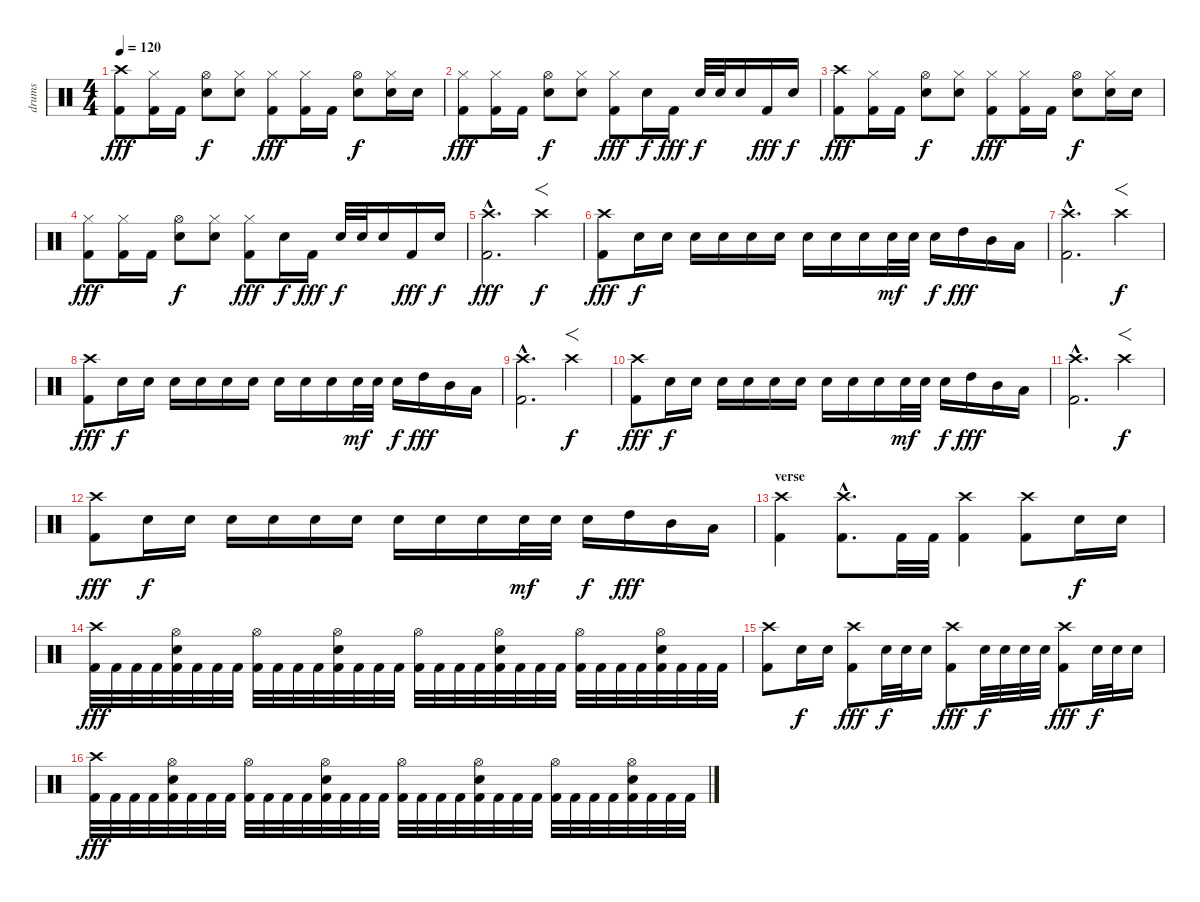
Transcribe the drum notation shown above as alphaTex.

\track ("drums" "drums") {instrument percussion}
\staff {score}
\articulation defaults
\ts (4 4)
\tempo 120
\clef neutral
\ks c
("Crash high (hit)" "Kick (hit) 2").8{dy fff} ("Hi-Hat (closed)" "Kick (hit) 2").16 "Kick (hit) 2".16 ("Hi-Hat (open)" "Snare (hit) 2").8{dy f} ("Hi-Hat (closed)" "Snare (hit) 2").8 ("Hi-Hat (closed)" "Kick (hit) 2").8{dy fff} ("Hi-Hat (closed)" "Kick (hit) 2").16 "Kick (hit) 2".16 ("Hi-Hat (open)" "Snare (hit) 2").8{dy f} ("Hi-Hat (closed)" "Snare (hit) 2").16 "Snare (hit) 2".16 |
("Hi-Hat (closed)" "Kick (hit) 2").8{dy fff} ("Hi-Hat (closed)" "Kick (hit) 2").16 "Kick (hit) 2".16 ("Hi-Hat (open)" "Snare (hit) 2").8{dy f} ("Hi-Hat (closed)" "Snare (hit) 2").8 ("Hi-Hat (closed)" "Kick (hit) 2").8{dy fff} "Snare (hit) 2".16{dy f} "Kick (hit) 2".16{dy fff} "Snare (hit) 2".32{dy f} "Snare (hit) 2".32 "Snare (hit) 2".16 "Kick (hit) 2".16{dy fff} "Snare (hit) 2".16{dy f} |
("Crash high (hit)" "Kick (hit) 2").8{dy fff} ("Hi-Hat (closed)" "Kick (hit) 2").16 "Kick (hit) 2".16 ("Hi-Hat (open)" "Snare (hit) 2").8{dy f} ("Hi-Hat (closed)" "Snare (hit) 2").8 ("Hi-Hat (closed)" "Kick (hit) 2").8{dy fff} ("Hi-Hat (closed)" "Kick (hit) 2").16 "Kick (hit) 2".16 ("Hi-Hat (open)" "Snare (hit) 2").8{dy f} ("Hi-Hat (closed)" "Snare (hit) 2").16 "Snare (hit) 2".16 |
("Hi-Hat (closed)" "Kick (hit) 2").8{dy fff} ("Hi-Hat (closed)" "Kick (hit) 2").16 "Kick (hit) 2".16 ("Hi-Hat (open)" "Snare (hit) 2").8{dy f} ("Hi-Hat (closed)" "Snare (hit) 2").8 ("Hi-Hat (closed)" "Kick (hit) 2").8{dy fff} "Snare (hit) 2".16{dy f} "Kick (hit) 2".16{dy fff} "Snare (hit) 2".32{dy f} "Snare (hit) 2".32 "Snare (hit) 2".16 "Kick (hit) 2".16{dy fff} "Snare (hit) 2".16{dy f} |
("Crash high (hit)"{hac} "Kick (hit) 2"{hac}).2{d dy fff} "Crash high (hit)".4{f dy f} |
("Crash high (hit)" "Kick (hit) 2").8{dy fff} "Snare (hit) 2".16{dy f} "Snare (hit) 2".16 "Snare (hit) 2".16 "Snare (hit) 2".16 "Snare (hit) 2".16 "Snare (hit) 2".16 "Snare (hit) 2".16 "Snare (hit) 2".16 "Snare (hit) 2".16 "Snare (hit) 2".32{dy mf} "Snare (hit) 2".32 "Snare (hit) 2".16{dy f} "High Tom (hit)".16{dy fff} "Mid Tom (hit)".16 "Low Tom (hit)".16 |
("Crash high (hit)"{hac} "Kick (hit) 2"{hac}).2{d} "Crash high (hit)".4{f dy f} |
("Crash high (hit)" "Kick (hit) 2").8{dy fff} "Snare (hit) 2".16{dy f} "Snare (hit) 2".16 "Snare (hit) 2".16 "Snare (hit) 2".16 "Snare (hit) 2".16 "Snare (hit) 2".16 "Snare (hit) 2".16 "Snare (hit) 2".16 "Snare (hit) 2".16 "Snare (hit) 2".32{dy mf} "Snare (hit) 2".32 "Snare (hit) 2".16{dy f} "High Tom (hit)".16{dy fff} "Mid Tom (hit)".16 "Low Tom (hit)".16 |
("Crash high (hit)"{hac} "Kick (hit) 2"{hac}).2{d} "Crash high (hit)".4{f dy f} |
("Crash high (hit)" "Kick (hit) 2").8{dy fff} "Snare (hit) 2".16{dy f} "Snare (hit) 2".16 "Snare (hit) 2".16 "Snare (hit) 2".16 "Snare (hit) 2".16 "Snare (hit) 2".16 "Snare (hit) 2".16 "Snare (hit) 2".16 "Snare (hit) 2".16 "Snare (hit) 2".32{dy mf} "Snare (hit) 2".32 "Snare (hit) 2".16{dy f} "High Tom (hit)".16{dy fff} "Mid Tom (hit)".16 "Low Tom (hit)".16 |
("Crash high (hit)"{hac} "Kick (hit) 2"{hac}).2{d} "Crash high (hit)".4{f dy f} |
("Crash high (hit)" "Kick (hit) 2").8{dy fff} "Snare (hit) 2".16{dy f} "Snare (hit) 2".16 "Snare (hit) 2".16 "Snare (hit) 2".16 "Snare (hit) 2".16 "Snare (hit) 2".16 "Snare (hit) 2".16 "Snare (hit) 2".16 "Snare (hit) 2".16 "Snare (hit) 2".32{dy mf} "Snare (hit) 2".32 "Snare (hit) 2".16{dy f} "High Tom (hit)".16{dy fff} "Mid Tom (hit)".16 "Low Tom (hit)".16 |
\section ("" "verse")
("Crash high (hit)" "Kick (hit) 2").4 ("Crash high (hit)"{hac} "Kick (hit) 2"{hac}).8{d} "Kick (hit) 2".32 "Kick (hit) 2".32 ("Crash high (hit)" "Kick (hit) 2").4 ("Crash high (hit)" "Kick (hit) 2").8 "Snare (hit) 2".16{dy f} "Snare (hit) 2".16 |
("Crash high (hit)" "Kick (hit) 2").32{dy fff} "Kick (hit) 2".32 "Kick (hit) 2".32 "Kick (hit) 2".32 ("Hi-Hat (open)" "Snare (hit) 2" "Kick (hit) 2").32 "Kick (hit) 2".32 "Kick (hit) 2".32 "Kick (hit) 2".32 ("Hi-Hat (open)" "Kick (hit) 2").32 "Kick (hit) 2".32 "Kick (hit) 2".32 "Kick (hit) 2".32 ("Hi-Hat (open)" "Snare (hit) 2" "Kick (hit) 2").32 "Kick (hit) 2".32 "Kick (hit) 2".32 "Kick (hit) 2".32 ("Hi-Hat (open)" "Kick (hit) 2").32 "Kick (hit) 2".32 "Kick (hit) 2".32 "Kick (hit) 2".32 ("Hi-Hat (open)" "Snare (hit) 2" "Kick (hit) 2").32 "Kick (hit) 2".32 "Kick (hit) 2".32 "Kick (hit) 2".32 ("Hi-Hat (open)" "Kick (hit) 2").32 "Kick (hit) 2".32 "Kick (hit) 2".32 "Kick (hit) 2".32 ("Hi-Hat (open)" "Snare (hit) 2" "Kick (hit) 2").32 "Kick (hit) 2".32 "Kick (hit) 2".32 "Kick (hit) 2".32 |
("Crash high (hit)" "Kick (hit) 2").8 "Snare (hit) 2".16{dy f} "Snare (hit) 2".16 ("Crash high (hit)" "Kick (hit) 2").8{dy fff} "Snare (hit) 2".32{dy f} "Snare (hit) 2".32 "Snare (hit) 2".16 ("Crash high (hit)" "Kick (hit) 2").8{dy fff} "Snare (hit) 2".32{dy f} "Snare (hit) 2".32 "Snare (hit) 2".32 "Snare (hit) 2".32 ("Crash high (hit)" "Kick (hit) 2").8{dy fff} "Snare (hit) 2".32{dy f} "Snare (hit) 2".32 "Snare (hit) 2".16 |
("Crash high (hit)" "Kick (hit) 2").32{dy fff} "Kick (hit) 2".32 "Kick (hit) 2".32 "Kick (hit) 2".32 ("Hi-Hat (open)" "Snare (hit) 2" "Kick (hit) 2").32 "Kick (hit) 2".32 "Kick (hit) 2".32 "Kick (hit) 2".32 ("Hi-Hat (open)" "Kick (hit) 2").32 "Kick (hit) 2".32 "Kick (hit) 2".32 "Kick (hit) 2".32 ("Hi-Hat (open)" "Snare (hit) 2" "Kick (hit) 2").32 "Kick (hit) 2".32 "Kick (hit) 2".32 "Kick (hit) 2".32 ("Hi-Hat (open)" "Kick (hit) 2").32 "Kick (hit) 2".32 "Kick (hit) 2".32 "Kick (hit) 2".32 ("Hi-Hat (open)" "Snare (hit) 2" "Kick (hit) 2").32 "Kick (hit) 2".32 "Kick (hit) 2".32 "Kick (hit) 2".32 ("Hi-Hat (open)" "Kick (hit) 2").32 "Kick (hit) 2".32 "Kick (hit) 2".32 "Kick (hit) 2".32 ("Hi-Hat (open)" "Snare (hit) 2" "Kick (hit) 2").32 "Kick (hit) 2".32 "Kick (hit) 2".32 "Kick (hit) 2".32
